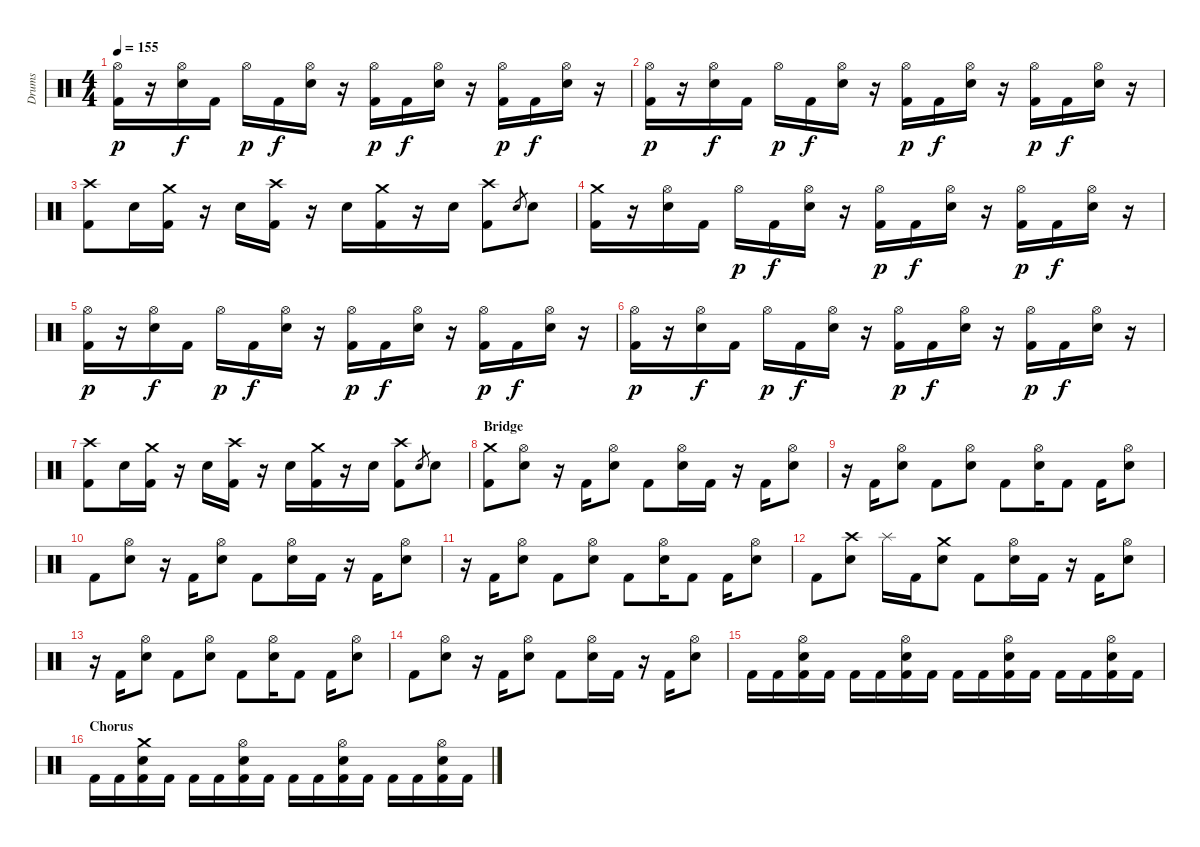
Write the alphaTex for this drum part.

\track ("Drums" "Drums") {instrument percussion}
\staff {score}
\articulation defaults
\ts (4 4)
\tempo 155
\clef neutral
\ks c
("Hi-Hat (open)" "Kick (hit) 2").16{dy p} r.16 ("Hi-Hat (open)" "Snare (hit) 2").16{dy f} "Kick (hit) 2".16 "Hi-Hat (open)".16{dy p} "Kick (hit) 2".16{dy f} ("Hi-Hat (open)" "Snare (hit) 2").16 r.16 ("Hi-Hat (open)" "Kick (hit) 2").16{dy p} "Kick (hit) 2".16{dy f} ("Hi-Hat (open)" "Snare (hit) 2").16 r.16 ("Hi-Hat (open)" "Kick (hit) 2").16{dy p} "Kick (hit) 2".16{dy f} ("Hi-Hat (open)" "Snare (hit) 2").16 r.16 |
("Hi-Hat (open)" "Kick (hit) 2").16{dy p} r.16 ("Hi-Hat (open)" "Snare (hit) 2").16{dy f} "Kick (hit) 2".16 "Hi-Hat (open)".16{dy p} "Kick (hit) 2".16{dy f} ("Hi-Hat (open)" "Snare (hit) 2").16 r.16 ("Hi-Hat (open)" "Kick (hit) 2").16{dy p} "Kick (hit) 2".16{dy f} ("Hi-Hat (open)" "Snare (hit) 2").16 r.16 ("Hi-Hat (open)" "Kick (hit) 2").16{dy p} "Kick (hit) 2".16{dy f} ("Hi-Hat (open)" "Snare (hit) 2").16 r.16 |
("Crash high (hit)" "Kick (hit) 2").8 "Snare (hit) 2".16 ("Crash medium (hit)" "Kick (hit) 2").16 r.16 "Snare (hit) 2".16 ("Crash high (hit)" "Kick (hit) 2").16 r.16 "Snare (hit) 2".16 ("Crash medium (hit)" "Kick (hit) 2").16 r.16 "Snare (hit) 2".16 ("Crash high (hit)" "Kick (hit) 2").8 "Snare (hit) 2".8{gr} "Snare (hit) 2".8 |
("Crash medium (hit)" "Kick (hit) 2").16 r.16 ("Hi-Hat (open)" "Snare (hit) 2").16 "Kick (hit) 2".16 "Hi-Hat (open)".16{dy p} "Kick (hit) 2".16{dy f} ("Hi-Hat (open)" "Snare (hit) 2").16 r.16 ("Hi-Hat (open)" "Kick (hit) 2").16{dy p} "Kick (hit) 2".16{dy f} ("Hi-Hat (open)" "Snare (hit) 2").16 r.16 ("Hi-Hat (open)" "Kick (hit) 2").16{dy p} "Kick (hit) 2".16{dy f} ("Hi-Hat (open)" "Snare (hit) 2").16 r.16 |
("Hi-Hat (open)" "Kick (hit) 2").16{dy p} r.16 ("Hi-Hat (open)" "Snare (hit) 2").16{dy f} "Kick (hit) 2".16 "Hi-Hat (open)".16{dy p} "Kick (hit) 2".16{dy f} ("Hi-Hat (open)" "Snare (hit) 2").16 r.16 ("Hi-Hat (open)" "Kick (hit) 2").16{dy p} "Kick (hit) 2".16{dy f} ("Hi-Hat (open)" "Snare (hit) 2").16 r.16 ("Hi-Hat (open)" "Kick (hit) 2").16{dy p} "Kick (hit) 2".16{dy f} ("Hi-Hat (open)" "Snare (hit) 2").16 r.16 |
("Hi-Hat (open)" "Kick (hit) 2").16{dy p} r.16 ("Hi-Hat (open)" "Snare (hit) 2").16{dy f} "Kick (hit) 2".16 "Hi-Hat (open)".16{dy p} "Kick (hit) 2".16{dy f} ("Hi-Hat (open)" "Snare (hit) 2").16 r.16 ("Hi-Hat (open)" "Kick (hit) 2").16{dy p} "Kick (hit) 2".16{dy f} ("Hi-Hat (open)" "Snare (hit) 2").16 r.16 ("Hi-Hat (open)" "Kick (hit) 2").16{dy p} "Kick (hit) 2".16{dy f} ("Hi-Hat (open)" "Snare (hit) 2").16 r.16 |
("Crash high (hit)" "Kick (hit) 2").8 "Snare (hit) 2".16 ("Crash medium (hit)" "Kick (hit) 2").16 r.16 "Snare (hit) 2".16 ("Crash high (hit)" "Kick (hit) 2").16 r.16 "Snare (hit) 2".16 ("Crash medium (hit)" "Kick (hit) 2").16 r.16 "Snare (hit) 2".16 ("Crash high (hit)" "Kick (hit) 2").8 "Snare (hit) 2".8{gr} "Snare (hit) 2".8 |
\section ("" "Bridge")
("Crash medium (hit)" "Kick (hit) 2").8 ("Hi-Hat (open)" "Snare (hit) 2").8 r.16 "Kick (hit) 2".16 ("Hi-Hat (open)" "Snare (hit) 2").8 "Kick (hit) 2".8 ("Hi-Hat (open)" "Snare (hit) 2").16 "Kick (hit) 2".16 r.16 "Kick (hit) 2".16 ("Hi-Hat (open)" "Snare (hit) 2").8 |
r.16 "Kick (hit) 2".16 ("Hi-Hat (open)" "Snare (hit) 2").8 "Kick (hit) 2".8 ("Hi-Hat (open)" "Snare (hit) 2").8 "Kick (hit) 2".8 ("Hi-Hat (open)" "Snare (hit) 2").16 "Kick (hit) 2".8 "Kick (hit) 2".16 ("Hi-Hat (open)" "Snare (hit) 2").8 |
"Kick (hit) 2".8 ("Hi-Hat (open)" "Snare (hit) 2").8 r.16 "Kick (hit) 2".16 ("Hi-Hat (open)" "Snare (hit) 2").8 "Kick (hit) 2".8 ("Hi-Hat (open)" "Snare (hit) 2").16 "Kick (hit) 2".16 r.16 "Kick (hit) 2".16 ("Hi-Hat (open)" "Snare (hit) 2").8 |
r.16 "Kick (hit) 2".16 ("Hi-Hat (open)" "Snare (hit) 2").8 "Kick (hit) 2".8 ("Hi-Hat (open)" "Snare (hit) 2").8 "Kick (hit) 2".8 ("Hi-Hat (open)" "Snare (hit) 2").16 "Kick (hit) 2".8 "Kick (hit) 2".16 ("Hi-Hat (open)" "Snare (hit) 2").8 |
"Kick (hit) 2".8 ("Crash high (hit)" "Snare (hit) 2").8 "Splash (hit)".16 "Kick (hit) 2".16 ("Crash medium (hit)" "Snare (hit) 2").8 "Kick (hit) 2".8 ("Hi-Hat (open)" "Snare (hit) 2").16 "Kick (hit) 2".16 r.16 "Kick (hit) 2".16 ("Hi-Hat (open)" "Snare (hit) 2").8 |
r.16 "Kick (hit) 2".16 ("Hi-Hat (open)" "Snare (hit) 2").8 "Kick (hit) 2".8 ("Hi-Hat (open)" "Snare (hit) 2").8 "Kick (hit) 2".8 ("Hi-Hat (open)" "Snare (hit) 2").16 "Kick (hit) 2".8 "Kick (hit) 2".16 ("Hi-Hat (open)" "Snare (hit) 2").8 |
"Kick (hit) 2".8 ("Hi-Hat (open)" "Snare (hit) 2").8 r.16 "Kick (hit) 2".16 ("Hi-Hat (open)" "Snare (hit) 2").8 "Kick (hit) 2".8 ("Hi-Hat (open)" "Snare (hit) 2").16 "Kick (hit) 2".16 r.16 "Kick (hit) 2".16 ("Hi-Hat (open)" "Snare (hit) 2").8 |
"Kick (hit) 2".16 "Kick (hit) 2".16 ("Hi-Hat (open)" "Snare (hit) 2" "Kick (hit) 2").16 "Kick (hit) 2".16 "Kick (hit) 2".16 "Kick (hit) 2".16 ("Hi-Hat (open)" "Snare (hit) 2" "Kick (hit) 2").16 "Kick (hit) 2".16 "Kick (hit) 2".16 "Kick (hit) 2".16 ("Hi-Hat (open)" "Snare (hit) 2" "Kick (hit) 2").16 "Kick (hit) 2".16 "Kick (hit) 2".16 "Kick (hit) 2".16 ("Hi-Hat (open)" "Snare (hit) 2" "Kick (hit) 2").16 "Kick (hit) 2".16 |
\section ("" "Chorus")
"Kick (hit) 2".16 "Kick (hit) 2".16 ("Crash medium (hit)" "Snare (hit) 2" "Kick (hit) 2").16 "Kick (hit) 2".16 "Kick (hit) 2".16 "Kick (hit) 2".16 ("Hi-Hat (open)" "Snare (hit) 2" "Kick (hit) 2").16 "Kick (hit) 2".16 "Kick (hit) 2".16 "Kick (hit) 2".16 ("Hi-Hat (open)" "Snare (hit) 2" "Kick (hit) 2").16 "Kick (hit) 2".16 "Kick (hit) 2".16 "Kick (hit) 2".16 ("Hi-Hat (open)" "Snare (hit) 2" "Kick (hit) 2").16 "Kick (hit) 2".16
